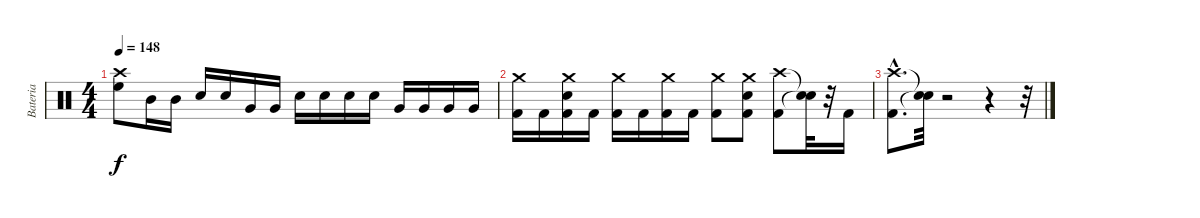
\track ("Bateria" "Bateria") {instrument percussion}
\staff {score}
\articulation defaults
\ts (4 4)
\tempo 148
\clef neutral
\ks c
("High Floor Tom (hit)" "Crash high (hit)").8{dy f} "Mid Tom (hit)".16 "Mid Tom (hit)".16 "Snare (hit) 2".16 "Snare (hit) 2".16 "Very Low Tom (hit)".16 "Very Low Tom (hit)".16 "Snare (hit) 2".16 "Snare (hit) 2".16 "Snare (hit) 2".16 "Snare (hit) 2".16 "Very Low Tom (hit)".16 "Very Low Tom (hit)".16 "Very Low Tom (hit)".16 "Very Low Tom (hit)".16 |
("Crash medium (hit)" "Kick (hit) 2").16 "Kick (hit) 2".16 ("Crash medium (hit)" "Kick (hit) 2" "Snare (hit) 2").16 "Kick (hit) 2".16 ("Crash medium (hit)" "Kick (hit) 2").16 "Kick (hit) 2".16 ("Crash medium (hit)" "Kick (hit) 2").16 "Kick (hit) 2".16 ("Crash medium (hit)" "Kick (hit) 2").8 ("Crash medium (hit)" "Kick (hit) 2" "Snare (hit) 2").8 ("Kick (hit) 2" "Crash high (hit)").8 ("Snare (hit)"{t} "Snare (hit)"{t}).32 r.32 "Kick (hit) 2".16 |
("Crash high (hit)"{hac} "Kick (hit) 2"{hac}).8{d} ("Snare (hit)"{t} "Snare (hit)"{t}).32 r.2 r.4 r.32
